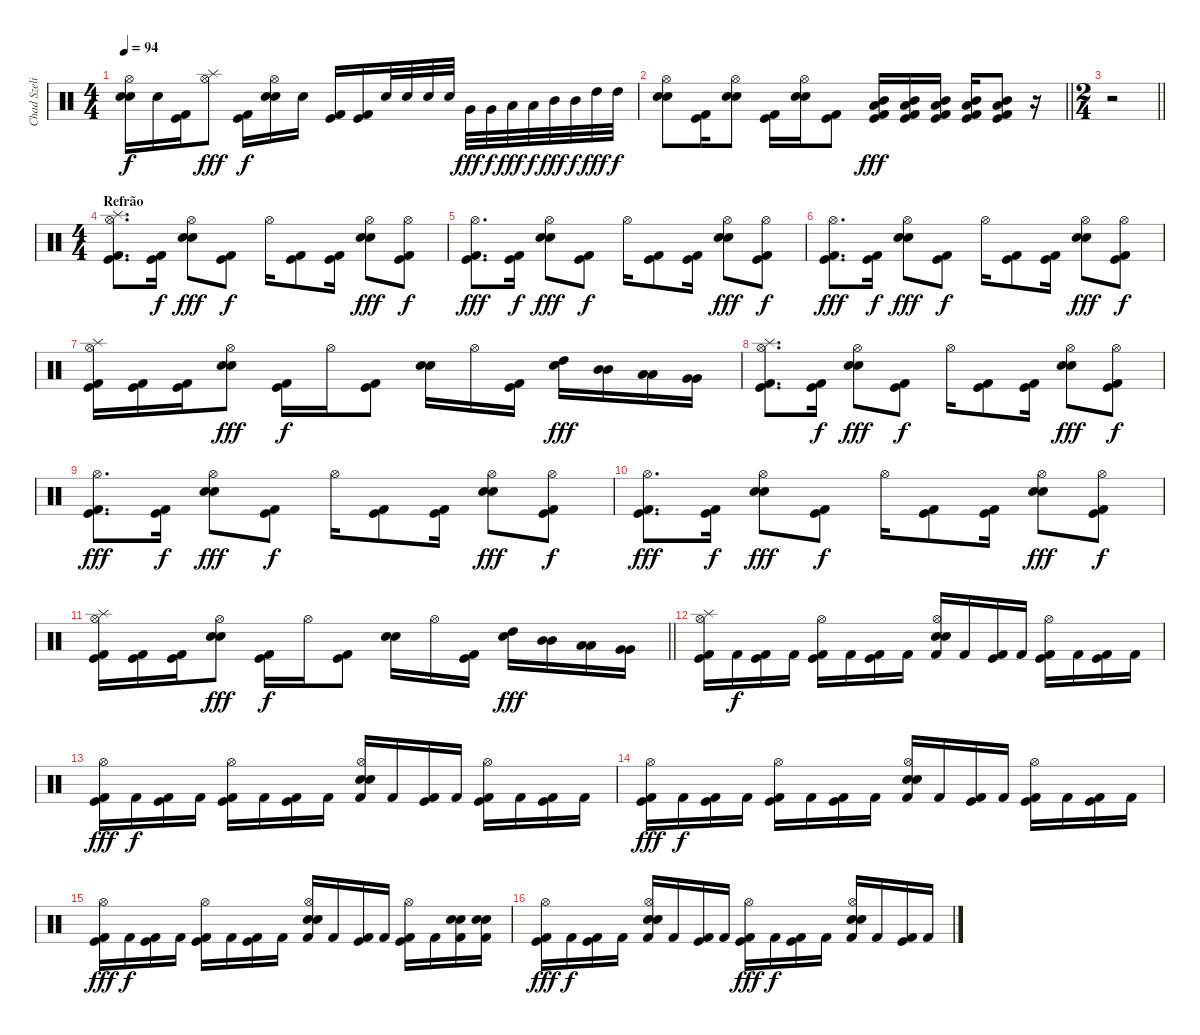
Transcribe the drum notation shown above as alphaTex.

\track ("Chad Szeliga" "Chad Szeli") {instrument percussion}
\staff {score}
\articulation defaults
\ts (4 4)
\tempo 94
\clef neutral
\ks c
("Snare (hit) 2" "Snare (hit) 2" "Hi-Hat (open)").16{dy f} "Snare (hit) 2".16 ("Kick (hit) 2" "Kick (hit)").16 ("Splash (hit)" "Hi-Hat (open)").8{dy fff} ("Kick (hit) 2" "Kick (hit)").16{dy f} ("Snare (hit) 2" "Snare (hit) 2" "Hi-Hat (open)").16 "Snare (hit) 2".16 ("Kick (hit) 2" "Kick (hit)").16 ("Kick (hit) 2" "Kick (hit)").16 "Snare (hit) 2".32 "Snare (hit) 2".32 "Snare (hit) 2".32 "Snare (hit) 2".32 "Very Low Tom (hit)".32{dy fff} "Very Low Tom (hit)".32{dy f} "Low Tom (hit)".32{dy fff} "Low Tom (hit)".32{dy f} "Mid Tom (hit)".32{dy fff} "Mid Tom (hit)".32{dy f} "High Tom (hit)".32{dy fff} "High Tom (hit)".32{dy f} |
\barLineRight lightlight
("Snare (hit) 2" "Snare (hit) 2" "Hi-Hat (open)").8 ("Kick (hit) 2" "Kick (hit)").16 ("Snare (hit) 2" "Snare (hit) 2" "Hi-Hat (open)").8 ("Kick (hit) 2" "Kick (hit)").16 ("Snare (hit) 2" "Snare (hit) 2" "Hi-Hat (open)").16 ("Kick (hit) 2" "Kick (hit)").8 ("Kick (hit) 2" "Kick (hit)" "Mid Tom (hit)" "Low Tom (hit)").16{dy fff} ("Kick (hit) 2" "Kick (hit)" "Mid Tom (hit)" "Low Tom (hit)").16 ("Kick (hit) 2" "Kick (hit)" "Mid Tom (hit)" "Low Tom (hit)").16 ("Kick (hit) 2" "Kick (hit)" "Mid Tom (hit)" "Low Tom (hit)").16 ("Kick (hit) 2" "Kick (hit)" "Mid Tom (hit)" "Low Tom (hit)").8 r.16 |
\ts (2 4)
\barLineRight lightlight
r.2 |
\ts (4 4)
\section ("" "Refrão")
("Splash (hit)" "Kick (hit) 2" "Kick (hit)" "Hi-Hat (open)").8{d} ("Kick (hit) 2" "Kick (hit)").16{dy f} ("Snare (hit) 2" "Snare (hit) 2" "Hi-Hat (open)").8{dy fff} ("Kick (hit) 2" "Kick (hit)").8{dy f} "Hi-Hat (open)".16 ("Kick (hit) 2" "Kick (hit)").8 ("Kick (hit) 2" "Kick (hit)").16 ("Snare (hit) 2" "Snare (hit) 2" "Hi-Hat (open)").8{dy fff} ("Kick (hit) 2" "Kick (hit)" "Hi-Hat (open)").8{dy f} |
("Kick (hit) 2" "Kick (hit)" "Hi-Hat (open)").8{d dy fff} ("Kick (hit) 2" "Kick (hit)").16{dy f} ("Snare (hit) 2" "Snare (hit) 2" "Hi-Hat (open)").8{dy fff} ("Kick (hit) 2" "Kick (hit)").8{dy f} "Hi-Hat (open)".16 ("Kick (hit) 2" "Kick (hit)").8 ("Kick (hit) 2" "Kick (hit)").16 ("Snare (hit) 2" "Snare (hit) 2" "Hi-Hat (open)").8{dy fff} ("Kick (hit) 2" "Kick (hit)" "Hi-Hat (open)").8{dy f} |
("Kick (hit) 2" "Kick (hit)" "Hi-Hat (open)").8{d dy fff} ("Kick (hit) 2" "Kick (hit)").16{dy f} ("Snare (hit) 2" "Snare (hit) 2" "Hi-Hat (open)").8{dy fff} ("Kick (hit) 2" "Kick (hit)").8{dy f} "Hi-Hat (open)".16 ("Kick (hit) 2" "Kick (hit)").8 ("Kick (hit) 2" "Kick (hit)").16 ("Snare (hit) 2" "Snare (hit) 2" "Hi-Hat (open)").8{dy fff} ("Kick (hit) 2" "Kick (hit)" "Hi-Hat (open)").8{dy f} |
("Splash (hit)" "Kick (hit) 2" "Kick (hit)" "Hi-Hat (open)").16 ("Kick (hit) 2" "Kick (hit)").16 ("Kick (hit) 2" "Kick (hit)").16 ("Snare (hit) 2" "Snare (hit) 2" "Hi-Hat (open)").8{dy fff} ("Kick (hit) 2" "Kick (hit)").16{dy f} "Hi-Hat (open)".16 ("Kick (hit) 2" "Kick (hit)").8 ("Snare (hit) 2" "Snare (hit) 2").16 "Hi-Hat (open)".16 ("Kick (hit) 2" "Kick (hit)").16 ("High Tom (hit)" "Snare (hit)").16{dy fff} ("Mid Tom (hit)" "Mid Tom (hit)").16 ("Low Tom (hit)" "Low Tom (hit)").16 ("Very Low Tom (hit)" "Very Low Tom (hit)").16 |
("Splash (hit)" "Kick (hit) 2" "Kick (hit)" "Hi-Hat (open)").8{d} ("Kick (hit) 2" "Kick (hit)").16{dy f} ("Snare (hit) 2" "Snare (hit) 2" "Hi-Hat (open)").8{dy fff} ("Kick (hit) 2" "Kick (hit)").8{dy f} "Hi-Hat (open)".16 ("Kick (hit) 2" "Kick (hit)").8 ("Kick (hit) 2" "Kick (hit)").16 ("Snare (hit) 2" "Snare (hit) 2" "Hi-Hat (open)").8{dy fff} ("Kick (hit) 2" "Kick (hit)" "Hi-Hat (open)").8{dy f} |
("Kick (hit) 2" "Kick (hit)" "Hi-Hat (open)").8{d dy fff} ("Kick (hit) 2" "Kick (hit)").16{dy f} ("Snare (hit) 2" "Snare (hit) 2" "Hi-Hat (open)").8{dy fff} ("Kick (hit) 2" "Kick (hit)").8{dy f} "Hi-Hat (open)".16 ("Kick (hit) 2" "Kick (hit)").8 ("Kick (hit) 2" "Kick (hit)").16 ("Snare (hit) 2" "Snare (hit) 2" "Hi-Hat (open)").8{dy fff} ("Kick (hit) 2" "Kick (hit)" "Hi-Hat (open)").8{dy f} |
("Kick (hit) 2" "Kick (hit)" "Hi-Hat (open)").8{d dy fff} ("Kick (hit) 2" "Kick (hit)").16{dy f} ("Snare (hit) 2" "Snare (hit) 2" "Hi-Hat (open)").8{dy fff} ("Kick (hit) 2" "Kick (hit)").8{dy f} "Hi-Hat (open)".16 ("Kick (hit) 2" "Kick (hit)").8 ("Kick (hit) 2" "Kick (hit)").16 ("Snare (hit) 2" "Snare (hit) 2" "Hi-Hat (open)").8{dy fff} ("Kick (hit) 2" "Kick (hit)" "Hi-Hat (open)").8{dy f} |
\barLineRight lightlight
("Splash (hit)" "Kick (hit) 2" "Kick (hit)" "Hi-Hat (open)").16 ("Kick (hit) 2" "Kick (hit)").16 ("Kick (hit) 2" "Kick (hit)").16 ("Snare (hit) 2" "Snare (hit) 2" "Hi-Hat (open)").8{dy fff} ("Kick (hit) 2" "Kick (hit)").16{dy f} "Hi-Hat (open)".16 ("Kick (hit) 2" "Kick (hit)").8 ("Snare (hit) 2" "Snare (hit) 2").16 "Hi-Hat (open)".16 ("Kick (hit) 2" "Kick (hit)").16 ("High Tom (hit)" "Snare (hit)").16{dy fff} ("Mid Tom (hit)" "Mid Tom (hit)").16 ("Low Tom (hit)" "Low Tom (hit)").16 ("Very Low Tom (hit)" "Very Low Tom (hit)").16 |
("Splash (hit)" "Kick (hit) 2" "Kick (hit)" "Hi-Hat (open)").16 "Kick (hit) 2".16{dy f} ("Kick (hit) 2" "Kick (hit)").16 "Kick (hit) 2".16 ("Kick (hit) 2" "Kick (hit)" "Hi-Hat (open)").16 "Kick (hit) 2".16 ("Kick (hit) 2" "Kick (hit)").16 "Kick (hit) 2".16 ("Kick (hit) 2" "Snare (hit) 2" "Snare (hit) 2" "Hi-Hat (open)").16 "Kick (hit) 2".16 ("Kick (hit) 2" "Kick (hit)").16 "Kick (hit) 2".16 ("Kick (hit) 2" "Kick (hit)" "Hi-Hat (open)").16 "Kick (hit) 2".16 ("Kick (hit) 2" "Kick (hit)").16 "Kick (hit) 2".16 |
("Kick (hit) 2" "Kick (hit)" "Hi-Hat (open)").16{dy fff} "Kick (hit) 2".16{dy f} ("Kick (hit) 2" "Kick (hit)").16 "Kick (hit) 2".16 ("Kick (hit) 2" "Kick (hit)" "Hi-Hat (open)").16 "Kick (hit) 2".16 ("Kick (hit) 2" "Kick (hit)").16 "Kick (hit) 2".16 ("Kick (hit) 2" "Snare (hit) 2" "Snare (hit) 2" "Hi-Hat (open)").16 "Kick (hit) 2".16 ("Kick (hit) 2" "Kick (hit)").16 "Kick (hit) 2".16 ("Kick (hit) 2" "Kick (hit)" "Hi-Hat (open)").16 "Kick (hit) 2".16 ("Kick (hit) 2" "Kick (hit)").16 "Kick (hit) 2".16 |
("Kick (hit) 2" "Kick (hit)" "Hi-Hat (open)").16{dy fff} "Kick (hit) 2".16{dy f} ("Kick (hit) 2" "Kick (hit)").16 "Kick (hit) 2".16 ("Kick (hit) 2" "Kick (hit)" "Hi-Hat (open)").16 "Kick (hit) 2".16 ("Kick (hit) 2" "Kick (hit)").16 "Kick (hit) 2".16 ("Kick (hit) 2" "Snare (hit) 2" "Snare (hit) 2" "Hi-Hat (open)").16 "Kick (hit) 2".16 ("Kick (hit) 2" "Kick (hit)").16 "Kick (hit) 2".16 ("Kick (hit) 2" "Kick (hit)" "Hi-Hat (open)").16 "Kick (hit) 2".16 ("Kick (hit) 2" "Kick (hit)").16 "Kick (hit) 2".16 |
("Kick (hit) 2" "Kick (hit)" "Hi-Hat (open)").16{dy fff} "Kick (hit) 2".16{dy f} ("Kick (hit) 2" "Kick (hit)").16 "Kick (hit) 2".16 ("Kick (hit) 2" "Kick (hit)" "Hi-Hat (open)").16 "Kick (hit) 2".16 ("Kick (hit) 2" "Kick (hit)").16 "Kick (hit) 2".16 ("Kick (hit) 2" "Snare (hit) 2" "Snare (hit) 2" "Hi-Hat (open)").16 "Kick (hit) 2".16 ("Kick (hit) 2" "Kick (hit)").16 "Kick (hit) 2".16 ("Kick (hit) 2" "Kick (hit)" "Hi-Hat (open)").16 "Kick (hit) 2".16 ("Kick (hit) 2" "Snare (hit) 2" "Snare (hit) 2").16 ("Kick (hit) 2" "Snare (hit) 2" "Snare (hit) 2").16 |
("Kick (hit) 2" "Kick (hit)" "Hi-Hat (open)").16{dy fff} "Kick (hit) 2".16{dy f} ("Kick (hit) 2" "Kick (hit)").16 "Kick (hit) 2".16 ("Kick (hit) 2" "Snare (hit) 2" "Snare (hit) 2" "Hi-Hat (open)").16 "Kick (hit) 2".16 ("Kick (hit) 2" "Kick (hit)").16 "Kick (hit) 2".16 ("Kick (hit) 2" "Kick (hit)" "Hi-Hat (open)").16{dy fff} "Kick (hit) 2".16{dy f} ("Kick (hit) 2" "Kick (hit)").16 "Kick (hit) 2".16 ("Kick (hit) 2" "Snare (hit) 2" "Snare (hit) 2" "Hi-Hat (open)").16 "Kick (hit) 2".16 ("Kick (hit) 2" "Kick (hit)").16 "Kick (hit) 2".16
